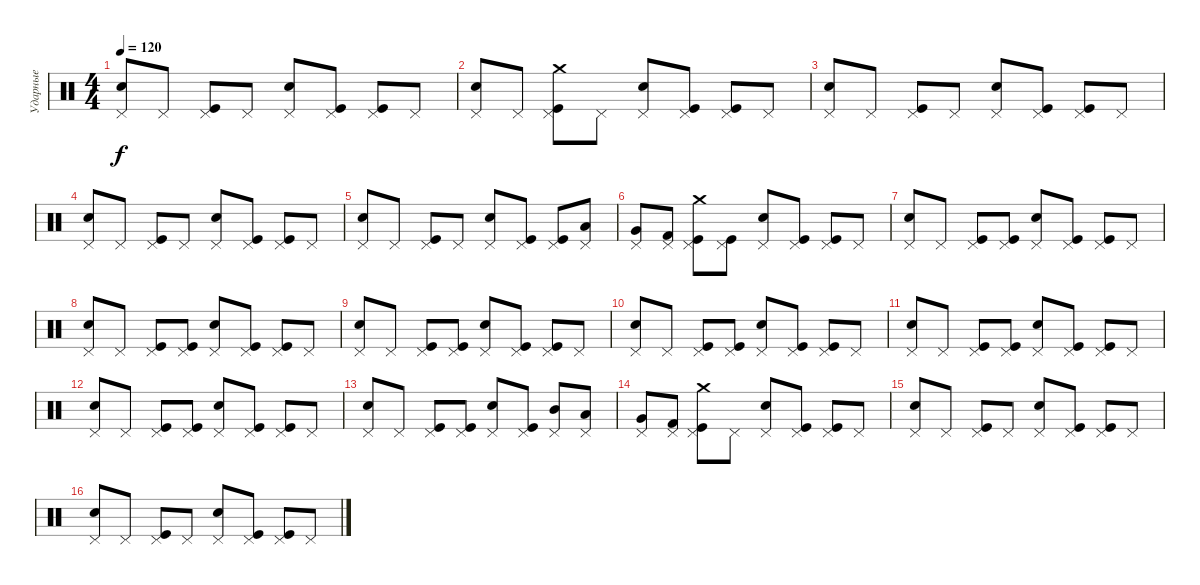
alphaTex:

\track ("Ударные" "Ударные") {instrument percussion}
\staff {score}
\articulation defaults
\ts (4 4)
\tempo 120
\clef neutral
\ks c
("Electric Snare (hit)" "Pedal Hi-Hat (hit)").8{dy f} "Pedal Hi-Hat (hit)".8 ("Kick (hit)" "Pedal Hi-Hat (hit)").8 "Pedal Hi-Hat (hit)".8 ("Electric Snare (hit)" "Pedal Hi-Hat (hit)").8 ("Kick (hit)" "Pedal Hi-Hat (hit)").8 ("Kick (hit)" "Pedal Hi-Hat (hit)").8 "Pedal Hi-Hat (hit)".8 |
("Electric Snare (hit)" "Pedal Hi-Hat (hit)").8 "Pedal Hi-Hat (hit)".8 ("Kick (hit)" "Pedal Hi-Hat (hit)" "Crash medium (hit)").8 "Pedal Hi-Hat (hit)".8 ("Electric Snare (hit)" "Pedal Hi-Hat (hit)").8 ("Kick (hit)" "Pedal Hi-Hat (hit)").8 ("Kick (hit)" "Pedal Hi-Hat (hit)").8 "Pedal Hi-Hat (hit)".8 |
("Electric Snare (hit)" "Pedal Hi-Hat (hit)").8 "Pedal Hi-Hat (hit)".8 ("Kick (hit)" "Pedal Hi-Hat (hit)").8 "Pedal Hi-Hat (hit)".8 ("Electric Snare (hit)" "Pedal Hi-Hat (hit)").8 ("Kick (hit)" "Pedal Hi-Hat (hit)").8 ("Kick (hit)" "Pedal Hi-Hat (hit)").8 "Pedal Hi-Hat (hit)".8 |
("Electric Snare (hit)" "Pedal Hi-Hat (hit)").8 "Pedal Hi-Hat (hit)".8 ("Kick (hit)" "Pedal Hi-Hat (hit)").8 "Pedal Hi-Hat (hit)".8 ("Electric Snare (hit)" "Pedal Hi-Hat (hit)").8 ("Kick (hit)" "Pedal Hi-Hat (hit)").8 ("Kick (hit)" "Pedal Hi-Hat (hit)").8 "Pedal Hi-Hat (hit)".8 |
("Electric Snare (hit)" "Pedal Hi-Hat (hit)").8 "Pedal Hi-Hat (hit)".8 ("Kick (hit)" "Pedal Hi-Hat (hit)").8 "Pedal Hi-Hat (hit)".8 ("Electric Snare (hit)" "Pedal Hi-Hat (hit)").8 ("Kick (hit)" "Pedal Hi-Hat (hit)").8 ("Kick (hit)" "Pedal Hi-Hat (hit)").8 ("Pedal Hi-Hat (hit)" "Low Tom (hit)").8 |
("Pedal Hi-Hat (hit)" "Very Low Tom (hit)").8 ("Pedal Hi-Hat (hit)" "Kick (hit) 2").8 ("Kick (hit)" "Pedal Hi-Hat (hit)" "Crash medium (hit)").8 ("Kick (hit)" "Pedal Hi-Hat (hit)").8 ("Electric Snare (hit)" "Pedal Hi-Hat (hit)").8 ("Kick (hit)" "Pedal Hi-Hat (hit)").8 ("Kick (hit)" "Pedal Hi-Hat (hit)").8 "Pedal Hi-Hat (hit)".8 |
("Electric Snare (hit)" "Pedal Hi-Hat (hit)").8 "Pedal Hi-Hat (hit)".8 ("Kick (hit)" "Pedal Hi-Hat (hit)").8 ("Kick (hit)" "Pedal Hi-Hat (hit)").8 ("Electric Snare (hit)" "Pedal Hi-Hat (hit)").8 ("Kick (hit)" "Pedal Hi-Hat (hit)").8 ("Kick (hit)" "Pedal Hi-Hat (hit)").8 "Pedal Hi-Hat (hit)".8 |
("Electric Snare (hit)" "Pedal Hi-Hat (hit)").8 "Pedal Hi-Hat (hit)".8 ("Kick (hit)" "Pedal Hi-Hat (hit)").8 ("Kick (hit)" "Pedal Hi-Hat (hit)").8 ("Electric Snare (hit)" "Pedal Hi-Hat (hit)").8 ("Kick (hit)" "Pedal Hi-Hat (hit)").8 ("Kick (hit)" "Pedal Hi-Hat (hit)").8 "Pedal Hi-Hat (hit)".8 |
("Electric Snare (hit)" "Pedal Hi-Hat (hit)").8 "Pedal Hi-Hat (hit)".8 ("Kick (hit)" "Pedal Hi-Hat (hit)").8 ("Kick (hit)" "Pedal Hi-Hat (hit)").8 ("Electric Snare (hit)" "Pedal Hi-Hat (hit)").8 ("Kick (hit)" "Pedal Hi-Hat (hit)").8 ("Kick (hit)" "Pedal Hi-Hat (hit)").8 "Pedal Hi-Hat (hit)".8 |
("Electric Snare (hit)" "Pedal Hi-Hat (hit)").8 "Pedal Hi-Hat (hit)".8 ("Kick (hit)" "Pedal Hi-Hat (hit)").8 ("Kick (hit)" "Pedal Hi-Hat (hit)").8 ("Electric Snare (hit)" "Pedal Hi-Hat (hit)").8 ("Kick (hit)" "Pedal Hi-Hat (hit)").8 ("Kick (hit)" "Pedal Hi-Hat (hit)").8 "Pedal Hi-Hat (hit)".8 |
("Electric Snare (hit)" "Pedal Hi-Hat (hit)").8 "Pedal Hi-Hat (hit)".8 ("Kick (hit)" "Pedal Hi-Hat (hit)").8 ("Kick (hit)" "Pedal Hi-Hat (hit)").8 ("Electric Snare (hit)" "Pedal Hi-Hat (hit)").8 ("Kick (hit)" "Pedal Hi-Hat (hit)").8 ("Kick (hit)" "Pedal Hi-Hat (hit)").8 "Pedal Hi-Hat (hit)".8 |
("Electric Snare (hit)" "Pedal Hi-Hat (hit)").8 "Pedal Hi-Hat (hit)".8 ("Kick (hit)" "Pedal Hi-Hat (hit)").8 ("Kick (hit)" "Pedal Hi-Hat (hit)").8 ("Electric Snare (hit)" "Pedal Hi-Hat (hit)").8 ("Kick (hit)" "Pedal Hi-Hat (hit)").8 ("Kick (hit)" "Pedal Hi-Hat (hit)").8 "Pedal Hi-Hat (hit)".8 |
("Electric Snare (hit)" "Pedal Hi-Hat (hit)").8 "Pedal Hi-Hat (hit)".8 ("Kick (hit)" "Pedal Hi-Hat (hit)").8 ("Kick (hit)" "Pedal Hi-Hat (hit)").8 ("Electric Snare (hit)" "Pedal Hi-Hat (hit)").8 ("Kick (hit)" "Pedal Hi-Hat (hit)").8 ("Pedal Hi-Hat (hit)" "Mid Tom (hit)").8 ("Pedal Hi-Hat (hit)" "Low Tom (hit)").8 |
("Pedal Hi-Hat (hit)" "Very Low Tom (hit)").8 ("Pedal Hi-Hat (hit)" "Kick (hit) 2").8 ("Kick (hit)" "Pedal Hi-Hat (hit)" "Crash medium (hit)").8 "Pedal Hi-Hat (hit)".8 ("Electric Snare (hit)" "Pedal Hi-Hat (hit)").8 ("Kick (hit)" "Pedal Hi-Hat (hit)").8 ("Kick (hit)" "Pedal Hi-Hat (hit)").8 "Pedal Hi-Hat (hit)".8 |
("Electric Snare (hit)" "Pedal Hi-Hat (hit)").8 "Pedal Hi-Hat (hit)".8 ("Kick (hit)" "Pedal Hi-Hat (hit)").8 "Pedal Hi-Hat (hit)".8 ("Electric Snare (hit)" "Pedal Hi-Hat (hit)").8 ("Kick (hit)" "Pedal Hi-Hat (hit)").8 ("Kick (hit)" "Pedal Hi-Hat (hit)").8 "Pedal Hi-Hat (hit)".8 |
("Electric Snare (hit)" "Pedal Hi-Hat (hit)").8 "Pedal Hi-Hat (hit)".8 ("Kick (hit)" "Pedal Hi-Hat (hit)").8 "Pedal Hi-Hat (hit)".8 ("Electric Snare (hit)" "Pedal Hi-Hat (hit)").8 ("Kick (hit)" "Pedal Hi-Hat (hit)").8 ("Kick (hit)" "Pedal Hi-Hat (hit)").8 "Pedal Hi-Hat (hit)".8
